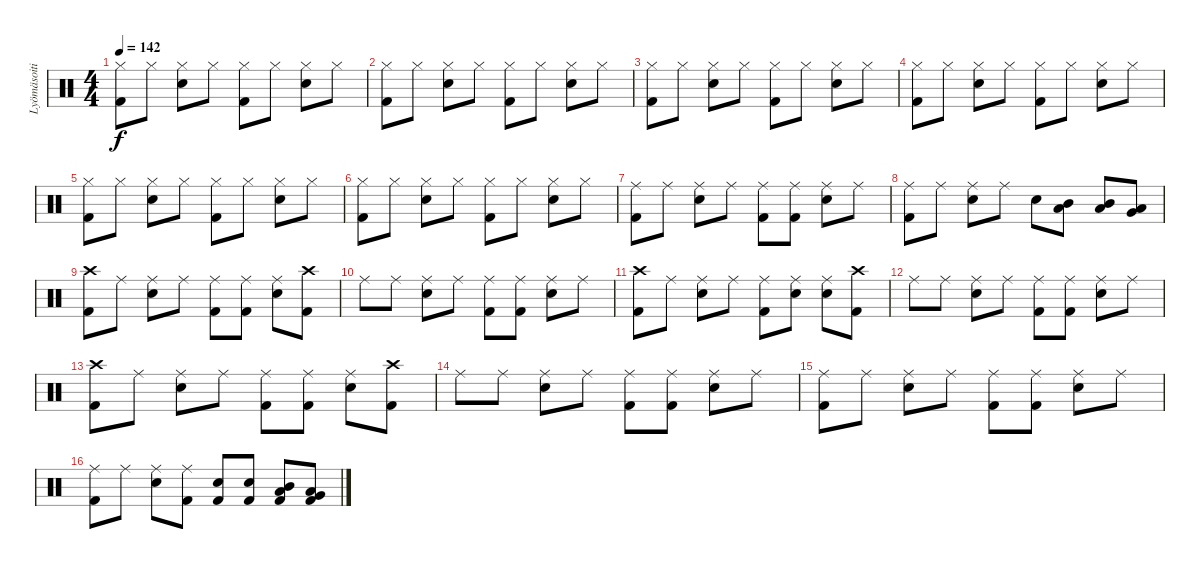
\track ("Lyömäsoitin" "Lyömäsoiti") {instrument percussion}
\staff {score}
\articulation defaults
\ts (4 4)
\tempo 142
\clef neutral
\ks c
("Hi-Hat (closed)" "Kick (hit) 2").8{dy f} "Hi-Hat (closed)".8 ("Hi-Hat (closed)" "Electric Snare (hit)").8 "Hi-Hat (closed)".8 ("Hi-Hat (closed)" "Kick (hit) 2").8 "Hi-Hat (closed)".8 ("Hi-Hat (closed)" "Electric Snare (hit)").8 "Hi-Hat (closed)".8 |
("Hi-Hat (closed)" "Kick (hit) 2").8 "Hi-Hat (closed)".8 ("Hi-Hat (closed)" "Electric Snare (hit)").8 "Hi-Hat (closed)".8 ("Hi-Hat (closed)" "Kick (hit) 2").8 "Hi-Hat (closed)".8 ("Hi-Hat (closed)" "Electric Snare (hit)").8 "Hi-Hat (closed)".8 |
("Hi-Hat (closed)" "Kick (hit) 2").8 "Hi-Hat (closed)".8 ("Hi-Hat (closed)" "Electric Snare (hit)").8 "Hi-Hat (closed)".8 ("Hi-Hat (closed)" "Kick (hit) 2").8 "Hi-Hat (closed)".8 ("Hi-Hat (closed)" "Electric Snare (hit)").8 "Hi-Hat (closed)".8 |
("Hi-Hat (closed)" "Kick (hit) 2").8 "Hi-Hat (closed)".8 ("Hi-Hat (closed)" "Electric Snare (hit)").8 "Hi-Hat (closed)".8 ("Hi-Hat (closed)" "Kick (hit) 2").8 "Hi-Hat (closed)".8 ("Hi-Hat (closed)" "Electric Snare (hit)").8 "Hi-Hat (closed)".8 |
("Hi-Hat (closed)" "Kick (hit) 2").8 "Hi-Hat (closed)".8 ("Hi-Hat (closed)" "Electric Snare (hit)").8 "Hi-Hat (closed)".8 ("Hi-Hat (closed)" "Kick (hit) 2").8 "Hi-Hat (closed)".8 ("Hi-Hat (closed)" "Electric Snare (hit)").8 "Hi-Hat (closed)".8 |
("Hi-Hat (closed)" "Kick (hit) 2").8 "Hi-Hat (closed)".8 ("Hi-Hat (closed)" "Electric Snare (hit)").8 "Hi-Hat (closed)".8 ("Hi-Hat (closed)" "Kick (hit) 2").8 "Hi-Hat (closed)".8 ("Hi-Hat (closed)" "Electric Snare (hit)").8 "Hi-Hat (closed)".8 |
("Ride (middle)" "Kick (hit) 2").8 "Ride (middle)".8 ("Ride (middle)" "Electric Snare (hit)").8 "Ride (middle)".8 ("Ride (middle)" "Kick (hit) 2").8 ("Ride (middle)" "Kick (hit) 2").8 ("Ride (middle)" "Electric Snare (hit)").8 "Ride (middle)".8 |
("Ride (middle)" "Kick (hit) 2").8 "Ride (middle)".8 ("Ride (middle)" "Electric Snare (hit)").8 "Ride (middle)".8 "Electric Snare (hit)".8 ("Low Tom (hit)" "Mid Tom (hit)").8 ("Low Tom (hit)" "Mid Tom (hit)").8 ("Very Low Tom (hit)" "Low Tom (hit)").8 |
("Crash high (hit)" "Kick (hit) 2").8 "Ride (middle)".8 ("Ride (middle)" "Electric Snare (hit)").8 "Ride (middle)".8 ("Ride (middle)" "Kick (hit) 2").8 ("Ride (middle)" "Kick (hit) 2").8 ("Ride (middle)" "Electric Snare (hit)").8 ("Crash high (hit)" "Kick (hit) 2").8 |
"Ride (middle)".8 "Ride (middle)".8 ("Ride (middle)" "Electric Snare (hit)").8 "Ride (middle)".8 ("Ride (middle)" "Kick (hit) 2").8 ("Ride (middle)" "Kick (hit) 2").8 ("Ride (middle)" "Electric Snare (hit)").8 "Ride (middle)".8 |
("Crash high (hit)" "Kick (hit) 2").8 "Ride (middle)".8 ("Ride (middle)" "Electric Snare (hit)").8 "Ride (middle)".8 ("Ride (middle)" "Kick (hit) 2").8 ("Ride (middle)" "Electric Snare (hit)").8 ("Ride (middle)" "Electric Snare (hit)").8 ("Crash high (hit)" "Kick (hit) 2").8 |
"Ride (middle)".8 "Ride (middle)".8 ("Ride (middle)" "Electric Snare (hit)").8 "Ride (middle)".8 ("Ride (middle)" "Kick (hit) 2").8 ("Ride (middle)" "Kick (hit) 2").8 ("Ride (middle)" "Electric Snare (hit)").8 "Ride (middle)".8 |
("Crash high (hit)" "Kick (hit) 2").8 "Ride (middle)".8 ("Ride (middle)" "Electric Snare (hit)").8 "Ride (middle)".8 ("Ride (middle)" "Kick (hit) 2").8 ("Ride (middle)" "Kick (hit) 2").8 ("Ride (middle)" "Electric Snare (hit)").8 ("Crash high (hit)" "Kick (hit) 2").8 |
"Ride (middle)".8 "Ride (middle)".8 ("Ride (middle)" "Electric Snare (hit)").8 "Ride (middle)".8 ("Ride (middle)" "Kick (hit) 2").8 ("Ride (middle)" "Kick (hit) 2").8 ("Ride (middle)" "Electric Snare (hit)").8 "Ride (middle)".8 |
("Ride (middle)" "Kick (hit) 2").8 "Ride (middle)".8 ("Ride (middle)" "Electric Snare (hit)").8 "Ride (middle)".8 ("Ride (middle)" "Kick (hit) 2").8 ("Ride (middle)" "Kick (hit) 2").8 ("Ride (middle)" "Electric Snare (hit)").8 "Ride (middle)".8 |
("Ride (middle)" "Kick (hit) 2").8 "Ride (middle)".8 ("Ride (middle)" "Electric Snare (hit)").8 ("Ride (middle)" "Kick (hit) 2").8 ("Electric Snare (hit)" "Kick (hit) 2").8 ("Electric Snare (hit)" "Kick (hit) 2").8 ("Mid Tom (hit)" "Low Tom (hit)" "Kick (hit) 2").8 ("Low Tom (hit)" "Very Low Tom (hit)" "Kick (hit) 2").8
